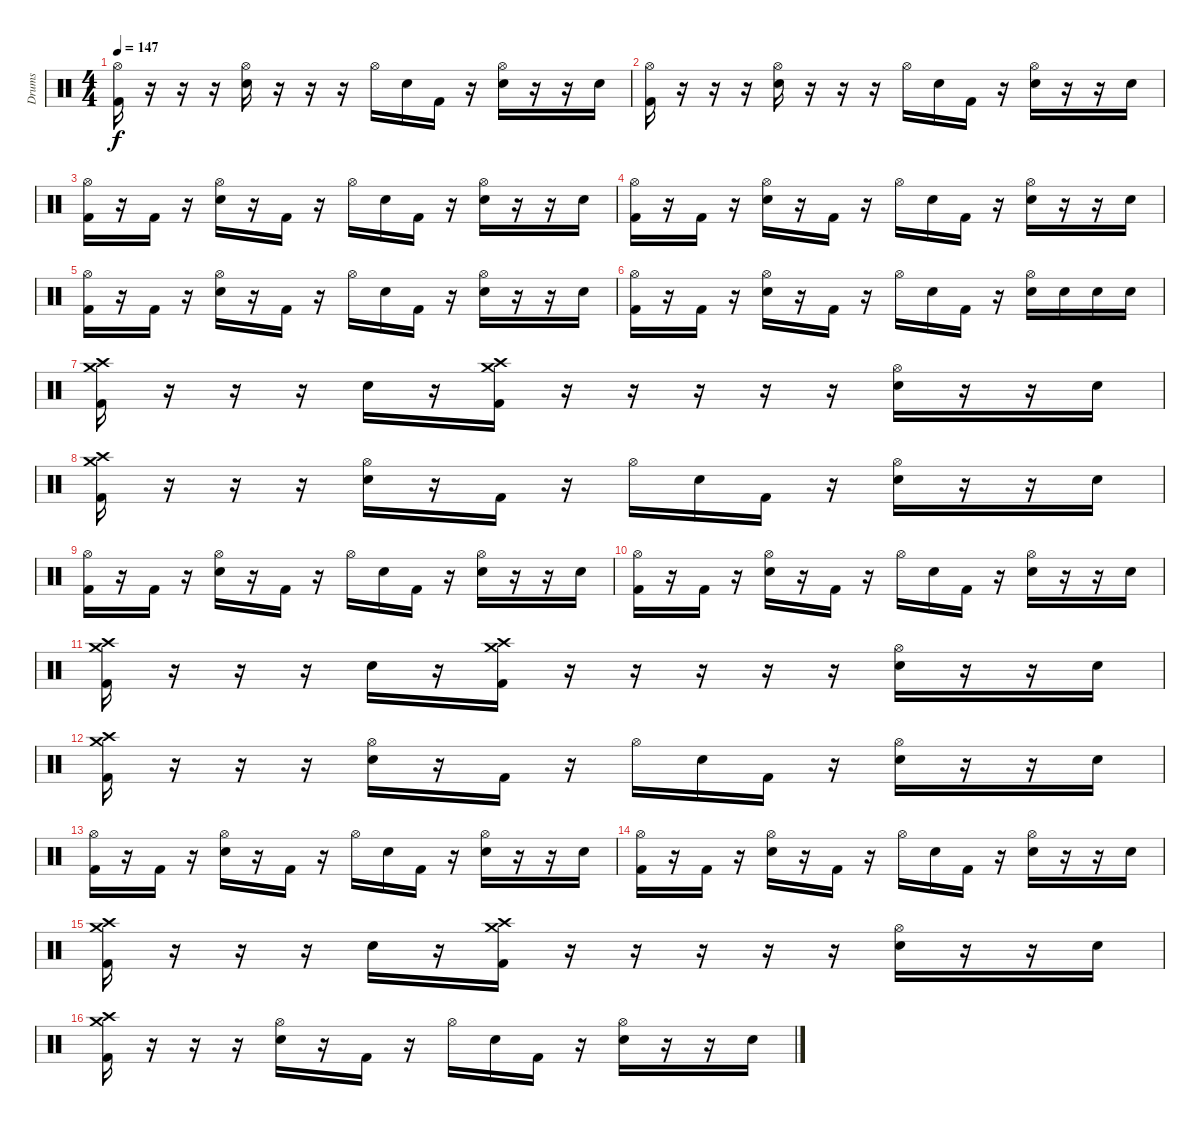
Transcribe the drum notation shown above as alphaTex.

\track ("Drums" "Drums") {instrument percussion}
\staff {score}
\articulation defaults
\ts (4 4)
\tempo 147
\clef neutral
\ks c
("Hi-Hat (open)" "Kick (hit) 2").16{dy f} r.16 r.16 r.16 ("Hi-Hat (open)" "Snare (hit) 2").16 r.16 r.16 r.16 "Hi-Hat (open)".16 "Snare (hit) 2".16 "Kick (hit) 2".16 r.16 ("Hi-Hat (open)" "Snare (hit) 2").16 r.16 r.16 "Snare (hit) 2".16 |
("Hi-Hat (open)" "Kick (hit) 2").16 r.16 r.16 r.16 ("Hi-Hat (open)" "Snare (hit) 2").16 r.16 r.16 r.16 "Hi-Hat (open)".16 "Snare (hit) 2".16 "Kick (hit) 2".16 r.16 ("Hi-Hat (open)" "Snare (hit) 2").16 r.16 r.16 "Snare (hit) 2".16 |
("Hi-Hat (open)" "Kick (hit) 2").16 r.16 "Kick (hit) 2".16 r.16 ("Hi-Hat (open)" "Snare (hit) 2").16 r.16 "Kick (hit) 2".16 r.16 "Hi-Hat (open)".16 "Snare (hit) 2".16 "Kick (hit) 2".16 r.16 ("Hi-Hat (open)" "Snare (hit) 2").16 r.16 r.16 "Snare (hit) 2".16 |
("Hi-Hat (open)" "Kick (hit) 2").16 r.16 "Kick (hit) 2".16 r.16 ("Hi-Hat (open)" "Snare (hit) 2").16 r.16 "Kick (hit) 2".16 r.16 "Hi-Hat (open)".16 "Snare (hit) 2".16 "Kick (hit) 2".16 r.16 ("Hi-Hat (open)" "Snare (hit) 2").16 r.16 r.16 "Snare (hit) 2".16 |
("Hi-Hat (open)" "Kick (hit) 2").16 r.16 "Kick (hit) 2".16 r.16 ("Hi-Hat (open)" "Snare (hit) 2").16 r.16 "Kick (hit) 2".16 r.16 "Hi-Hat (open)".16 "Snare (hit) 2".16 "Kick (hit) 2".16 r.16 ("Hi-Hat (open)" "Snare (hit) 2").16 r.16 r.16 "Snare (hit) 2".16 |
("Hi-Hat (open)" "Kick (hit) 2").16 r.16 "Kick (hit) 2".16 r.16 ("Hi-Hat (open)" "Snare (hit) 2").16 r.16 "Kick (hit) 2".16 r.16 "Hi-Hat (open)".16 "Snare (hit) 2".16 "Kick (hit) 2".16 r.16 ("Hi-Hat (open)" "Snare (hit) 2").16 "Snare (hit) 2".16 "Snare (hit) 2".16 "Snare (hit) 2".16 |
("Crash high (hit)" "Crash medium (hit)" "Kick (hit) 2").16 r.16 r.16 r.16 "Snare (hit) 2".16 r.16 ("Crash high (hit)" "Crash medium (hit)" "Kick (hit) 2").16 r.16 r.16 r.16 r.16 r.16 ("Hi-Hat (open)" "Snare (hit) 2").16 r.16 r.16 "Snare (hit) 2".16 |
("Crash high (hit)" "Crash medium (hit)" "Kick (hit) 2").16 r.16 r.16 r.16 ("Hi-Hat (open)" "Snare (hit) 2").16 r.16 "Kick (hit) 2".16 r.16 "Hi-Hat (open)".16 "Snare (hit) 2".16 "Kick (hit) 2".16 r.16 ("Hi-Hat (open)" "Snare (hit) 2").16 r.16 r.16 "Snare (hit) 2".16 |
("Hi-Hat (open)" "Kick (hit) 2").16 r.16 "Kick (hit) 2".16 r.16 ("Hi-Hat (open)" "Snare (hit) 2").16 r.16 "Kick (hit) 2".16 r.16 "Hi-Hat (open)".16 "Snare (hit) 2".16 "Kick (hit) 2".16 r.16 ("Hi-Hat (open)" "Snare (hit) 2").16 r.16 r.16 "Snare (hit) 2".16 |
("Hi-Hat (open)" "Kick (hit) 2").16 r.16 "Kick (hit) 2".16 r.16 ("Hi-Hat (open)" "Snare (hit) 2").16 r.16 "Kick (hit) 2".16 r.16 "Hi-Hat (open)".16 "Snare (hit) 2".16 "Kick (hit) 2".16 r.16 ("Hi-Hat (open)" "Snare (hit) 2").16 r.16 r.16 "Snare (hit) 2".16 |
("Crash high (hit)" "Crash medium (hit)" "Kick (hit) 2").16 r.16 r.16 r.16 "Snare (hit) 2".16 r.16 ("Crash high (hit)" "Crash medium (hit)" "Kick (hit) 2").16 r.16 r.16 r.16 r.16 r.16 ("Hi-Hat (open)" "Snare (hit) 2").16 r.16 r.16 "Snare (hit) 2".16 |
("Crash high (hit)" "Crash medium (hit)" "Kick (hit) 2").16 r.16 r.16 r.16 ("Hi-Hat (open)" "Snare (hit) 2").16 r.16 "Kick (hit) 2".16 r.16 "Hi-Hat (open)".16 "Snare (hit) 2".16 "Kick (hit) 2".16 r.16 ("Hi-Hat (open)" "Snare (hit) 2").16 r.16 r.16 "Snare (hit) 2".16 |
("Hi-Hat (open)" "Kick (hit) 2").16 r.16 "Kick (hit) 2".16 r.16 ("Hi-Hat (open)" "Snare (hit) 2").16 r.16 "Kick (hit) 2".16 r.16 "Hi-Hat (open)".16 "Snare (hit) 2".16 "Kick (hit) 2".16 r.16 ("Hi-Hat (open)" "Snare (hit) 2").16 r.16 r.16 "Snare (hit) 2".16 |
("Hi-Hat (open)" "Kick (hit) 2").16 r.16 "Kick (hit) 2".16 r.16 ("Hi-Hat (open)" "Snare (hit) 2").16 r.16 "Kick (hit) 2".16 r.16 "Hi-Hat (open)".16 "Snare (hit) 2".16 "Kick (hit) 2".16 r.16 ("Hi-Hat (open)" "Snare (hit) 2").16 r.16 r.16 "Snare (hit) 2".16 |
("Crash high (hit)" "Crash medium (hit)" "Kick (hit) 2").16 r.16 r.16 r.16 "Snare (hit) 2".16 r.16 ("Crash high (hit)" "Crash medium (hit)" "Kick (hit) 2").16 r.16 r.16 r.16 r.16 r.16 ("Hi-Hat (open)" "Snare (hit) 2").16 r.16 r.16 "Snare (hit) 2".16 |
("Crash high (hit)" "Crash medium (hit)" "Kick (hit) 2").16 r.16 r.16 r.16 ("Hi-Hat (open)" "Snare (hit) 2").16 r.16 "Kick (hit) 2".16 r.16 "Hi-Hat (open)".16 "Snare (hit) 2".16 "Kick (hit) 2".16 r.16 ("Hi-Hat (open)" "Snare (hit) 2").16 r.16 r.16 "Snare (hit) 2".16
